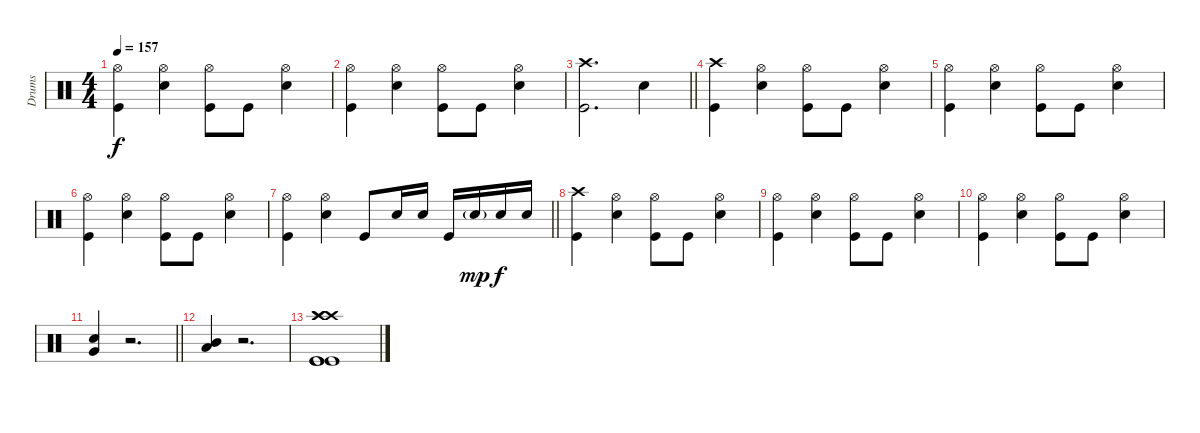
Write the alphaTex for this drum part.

\track ("Drums" "Drums") {instrument percussion}
\staff {score}
\articulation defaults
\ts (4 4)
\tempo 157
\clef neutral
\ks c
("Hi-Hat (open)" "Kick (hit)").4{dy f} ("Hi-Hat (open)" "Snare (hit) 2").4 ("Hi-Hat (open)" "Kick (hit)").8 "Kick (hit)".8 ("Hi-Hat (open)" "Snare (hit) 2").4 |
("Hi-Hat (open)" "Kick (hit)").4 ("Hi-Hat (open)" "Snare (hit) 2").4 ("Hi-Hat (open)" "Kick (hit)").8 "Kick (hit)".8 ("Hi-Hat (open)" "Snare (hit) 2").4 |
\barLineRight lightlight
("Crash high (hit)" "Kick (hit)").2{d} "Snare (hit) 2".4 |
("Crash high (hit)" "Kick (hit)").4 ("Hi-Hat (open)" "Snare (hit) 2").4 ("Hi-Hat (open)" "Kick (hit)").8 "Kick (hit)".8 ("Hi-Hat (open)" "Snare (hit) 2").4 |
("Hi-Hat (open)" "Kick (hit)").4 ("Hi-Hat (open)" "Snare (hit) 2").4 ("Hi-Hat (open)" "Kick (hit)").8 "Kick (hit)".8 ("Hi-Hat (open)" "Snare (hit) 2").4 |
("Hi-Hat (open)" "Kick (hit)").4 ("Hi-Hat (open)" "Snare (hit) 2").4 ("Hi-Hat (open)" "Kick (hit)").8 "Kick (hit)".8 ("Hi-Hat (open)" "Snare (hit) 2").4 |
\barLineRight lightlight
("Hi-Hat (open)" "Kick (hit)").4 ("Hi-Hat (open)" "Snare (hit) 2").4 "Kick (hit)".8 "Snare (hit) 2".16 "Snare (hit) 2".16 "Kick (hit)".16 "Snare (hit) 2"{g}.16{dy mp} "Snare (hit) 2".16{dy f} "Snare (hit) 2".16 |
("Crash high (hit)" "Kick (hit)").4 ("Hi-Hat (open)" "Snare (hit) 2").4 ("Hi-Hat (open)" "Kick (hit)").8 "Kick (hit)".8 ("Hi-Hat (open)" "Snare (hit) 2").4 |
("Hi-Hat (open)" "Kick (hit)").4 ("Hi-Hat (open)" "Snare (hit) 2").4 ("Hi-Hat (open)" "Kick (hit)").8 "Kick (hit)".8 ("Hi-Hat (open)" "Snare (hit) 2").4 |
("Hi-Hat (open)" "Kick (hit)").4 ("Hi-Hat (open)" "Snare (hit) 2").4 ("Hi-Hat (open)" "Kick (hit)").8 "Kick (hit)".8 ("Hi-Hat (open)" "Snare (hit) 2").4 |
\barLineRight lightlight
("Snare (hit) 2" "Very Low Tom (hit)").4 r.2{d} |
("Mid Tom (hit)" "Low Tom (hit)").4 r.2{d} |
("Kick (hit)" "Crash high (hit)" "Kick (hit)" "Crash high (hit)" "Crash high (hit)" "Kick (hit)").1
